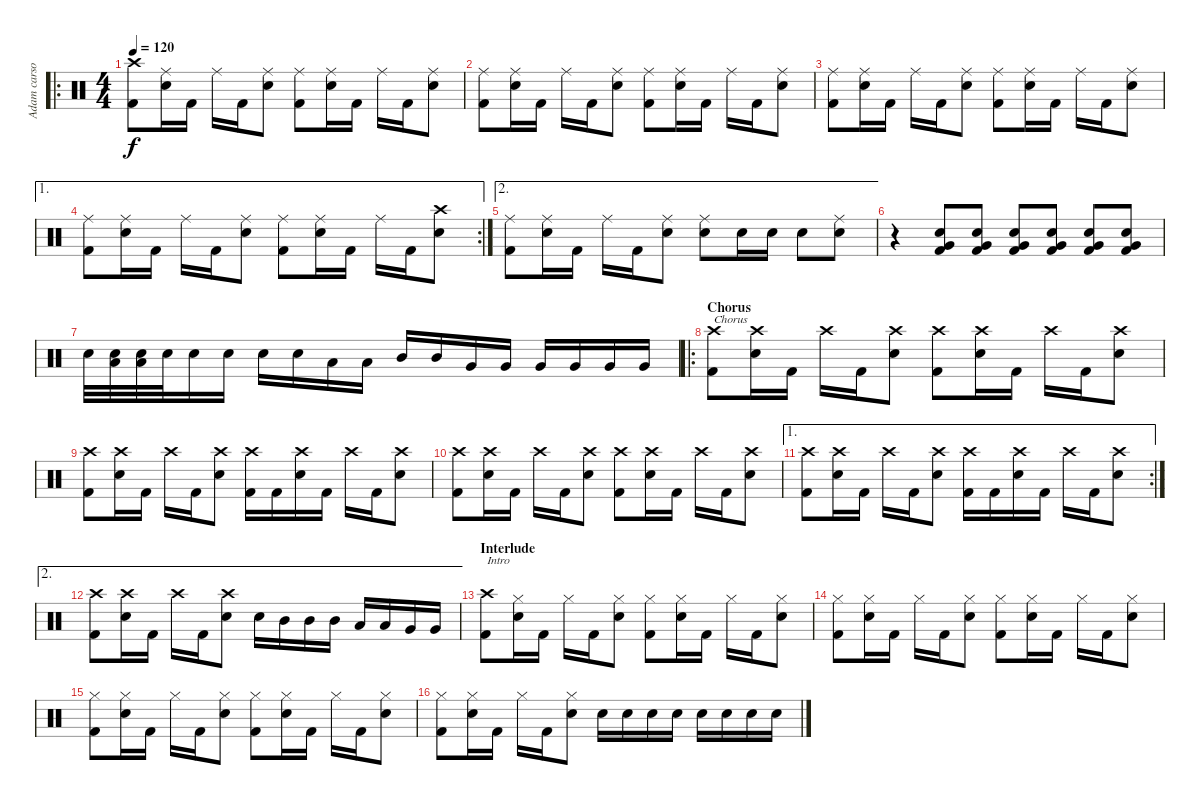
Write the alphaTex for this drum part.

\track ("Adam carson" "Adam carso") {instrument percussion}
\staff {score}
\articulation defaults
\ro
\ts (4 4)
\tempo 120
\clef neutral
\ks c
("Kick (hit) 2" "Crash high (hit)").8{dy f} ("Ride (middle)" "Snare (hit) 2").16 "Kick (hit) 2".16 "Ride (middle)".16 "Kick (hit) 2".16 ("Ride (middle)" "Snare (hit) 2").8 ("Kick (hit) 2" "Ride (middle)").8 ("Ride (middle)" "Snare (hit) 2").16 "Kick (hit) 2".16 "Ride (middle)".16 "Kick (hit) 2".16 ("Ride (middle)" "Snare (hit) 2").8 |
("Kick (hit) 2" "Ride (middle)").8 ("Ride (middle)" "Snare (hit) 2").16 "Kick (hit) 2".16 "Ride (middle)".16 "Kick (hit) 2".16 ("Ride (middle)" "Snare (hit) 2").8 ("Kick (hit) 2" "Ride (middle)").8 ("Ride (middle)" "Snare (hit) 2").16 "Kick (hit) 2".16 "Ride (middle)".16 "Kick (hit) 2".16 ("Ride (middle)" "Snare (hit) 2").8 |
("Kick (hit) 2" "Ride (middle)").8 ("Ride (middle)" "Snare (hit) 2").16 "Kick (hit) 2".16 "Ride (middle)".16 "Kick (hit) 2".16 ("Ride (middle)" "Snare (hit) 2").8 ("Kick (hit) 2" "Ride (middle)").8 ("Ride (middle)" "Snare (hit) 2").16 "Kick (hit) 2".16 "Ride (middle)".16 "Kick (hit) 2".16 ("Ride (middle)" "Snare (hit) 2").8 |
\ae 1
\rc 2
("Kick (hit) 2" "Ride (middle)").8 ("Ride (middle)" "Snare (hit) 2").16 "Kick (hit) 2".16 "Ride (middle)".16 "Kick (hit) 2".16 ("Ride (middle)" "Snare (hit) 2").8 ("Kick (hit) 2" "Ride (middle)").8 ("Ride (middle)" "Snare (hit) 2").16 "Kick (hit) 2".16 "Ride (middle)".16 "Kick (hit) 2".16 ("Crash high (hit)" "Snare (hit) 2").8 |
\ae 2
("Kick (hit) 2" "Ride (middle)").8 ("Ride (middle)" "Snare (hit) 2").16 "Kick (hit) 2".16 "Ride (middle)".16 "Kick (hit) 2".16 ("Ride (middle)" "Snare (hit) 2").8 ("Ride (middle)" "Snare (hit) 2").8 "Snare (hit) 2".16 "Snare (hit) 2".16 "Snare (hit) 2".8 ("Ride (middle)" "Snare (hit) 2").8 |
r.4 ("Kick (hit) 2" "Snare (hit) 2" "Very Low Tom (hit)").8 ("Kick (hit) 2" "Snare (hit) 2" "Very Low Tom (hit)").8 ("Kick (hit) 2" "Snare (hit) 2" "Very Low Tom (hit)").8 ("Kick (hit) 2" "Snare (hit) 2" "Very Low Tom (hit)").8 ("Kick (hit) 2" "Snare (hit) 2" "Very Low Tom (hit)").8 ("Kick (hit) 2" "Snare (hit) 2" "Very Low Tom (hit)").8 |
"Snare (hit) 2".32 ("Snare (hit) 2" "Low Tom (hit)").32 ("Snare (hit) 2" "Low Tom (hit)").32 "Snare (hit) 2".32 "Snare (hit) 2".16 "Snare (hit) 2".16 "Snare (hit) 2".16 "Snare (hit) 2".16 "Low Tom (hit)".16 "Low Tom (hit)".16 "Mid Tom (hit)".16 "Mid Tom (hit)".16 "Very Low Tom (hit)".16 "Very Low Tom (hit)".16 "Very Low Tom (hit)".16 "Very Low Tom (hit)".16 "Very Low Tom (hit)".16 "Very Low Tom (hit)".16 |
\ro
\section ("" "Chorus")
("Kick (hit) 2" "Crash high (hit)").8{txt "Chorus"} ("Crash high (hit)" "Snare (hit) 2").16 "Kick (hit) 2".16 "Crash high (hit)".16 "Kick (hit) 2".16 ("Crash high (hit)" "Snare (hit) 2").8 ("Kick (hit) 2" "Crash high (hit)").8 ("Crash high (hit)" "Snare (hit) 2").16 "Kick (hit) 2".16 "Crash high (hit)".16 "Kick (hit) 2".16 ("Crash high (hit)" "Snare (hit) 2").8 |
("Kick (hit) 2" "Crash high (hit)").8 ("Crash high (hit)" "Snare (hit) 2").16 "Kick (hit) 2".16 "Crash high (hit)".16 "Kick (hit) 2".16 ("Crash high (hit)" "Snare (hit) 2").8 ("Kick (hit) 2" "Crash high (hit)").16 "Kick (hit) 2".16 ("Crash high (hit)" "Snare (hit) 2").16 "Kick (hit) 2".16 "Crash high (hit)".16 "Kick (hit) 2".16 ("Crash high (hit)" "Snare (hit) 2").8 |
("Kick (hit) 2" "Crash high (hit)").8 ("Crash high (hit)" "Snare (hit) 2").16 "Kick (hit) 2".16 "Crash high (hit)".16 "Kick (hit) 2".16 ("Crash high (hit)" "Snare (hit) 2").8 ("Kick (hit) 2" "Crash high (hit)").8 ("Crash high (hit)" "Snare (hit) 2").16 "Kick (hit) 2".16 "Crash high (hit)".16 "Kick (hit) 2".16 ("Crash high (hit)" "Snare (hit) 2").8 |
\ae 1
\rc 2
("Kick (hit) 2" "Crash high (hit)").8 ("Crash high (hit)" "Snare (hit) 2").16 "Kick (hit) 2".16 "Crash high (hit)".16 "Kick (hit) 2".16 ("Crash high (hit)" "Snare (hit) 2").8 ("Kick (hit) 2" "Crash high (hit)").16 "Kick (hit) 2".16 ("Crash high (hit)" "Snare (hit) 2").16 "Kick (hit) 2".16 "Crash high (hit)".16 "Kick (hit) 2".16 ("Crash high (hit)" "Snare (hit) 2").8 |
\ae 2
("Kick (hit) 2" "Crash high (hit)").8 ("Crash high (hit)" "Snare (hit) 2").16 "Kick (hit) 2".16 "Crash high (hit)".16 "Kick (hit) 2".16 ("Crash high (hit)" "Snare (hit) 2").8 "Snare (hit) 2".16 "Mid Tom (hit)".16 "Mid Tom (hit)".16 "Mid Tom (hit)".16 "Low Tom (hit)".16 "Low Tom (hit)".16 "Very Low Tom (hit)".16 "Very Low Tom (hit)".16 |
\section ("" "Interlude")
("Kick (hit) 2" "Crash high (hit)").8{txt "Intro"} ("Snare (hit) 2" "Hi-Hat (closed)").16 "Kick (hit) 2".16 "Hi-Hat (closed)".16 "Kick (hit) 2".16 ("Snare (hit) 2" "Hi-Hat (closed)").8 ("Kick (hit) 2" "Hi-Hat (closed)").8 ("Snare (hit) 2" "Hi-Hat (closed)").16 "Kick (hit) 2".16 "Hi-Hat (closed)".16 "Kick (hit) 2".16 ("Snare (hit) 2" "Hi-Hat (closed)").8 |
("Kick (hit) 2" "Hi-Hat (closed)").8 ("Snare (hit) 2" "Hi-Hat (closed)").16 "Kick (hit) 2".16 "Hi-Hat (closed)".16 "Kick (hit) 2".16 ("Snare (hit) 2" "Hi-Hat (closed)").8 ("Kick (hit) 2" "Hi-Hat (closed)").8 ("Snare (hit) 2" "Hi-Hat (closed)").16 "Kick (hit) 2".16 "Hi-Hat (closed)".16 "Kick (hit) 2".16 ("Snare (hit) 2" "Hi-Hat (closed)").8 |
("Kick (hit) 2" "Hi-Hat (closed)").8 ("Snare (hit) 2" "Hi-Hat (closed)").16 "Kick (hit) 2".16 "Hi-Hat (closed)".16 "Kick (hit) 2".16 ("Snare (hit) 2" "Hi-Hat (closed)").8 ("Kick (hit) 2" "Hi-Hat (closed)").8 ("Snare (hit) 2" "Hi-Hat (closed)").16 "Kick (hit) 2".16 "Hi-Hat (closed)".16 "Kick (hit) 2".16 ("Snare (hit) 2" "Hi-Hat (closed)").8 |
("Kick (hit) 2" "Hi-Hat (closed)").8 ("Snare (hit) 2" "Hi-Hat (closed)").16 "Kick (hit) 2".16 "Hi-Hat (closed)".16 "Kick (hit) 2".16 ("Snare (hit) 2" "Hi-Hat (closed)").8 "Snare (hit) 2".16 "Snare (hit) 2".16 "Snare (hit) 2".16 "Snare (hit) 2".16 "Snare (hit) 2".16 "Snare (hit) 2".16 "Snare (hit) 2".16 "Snare (hit) 2".16
